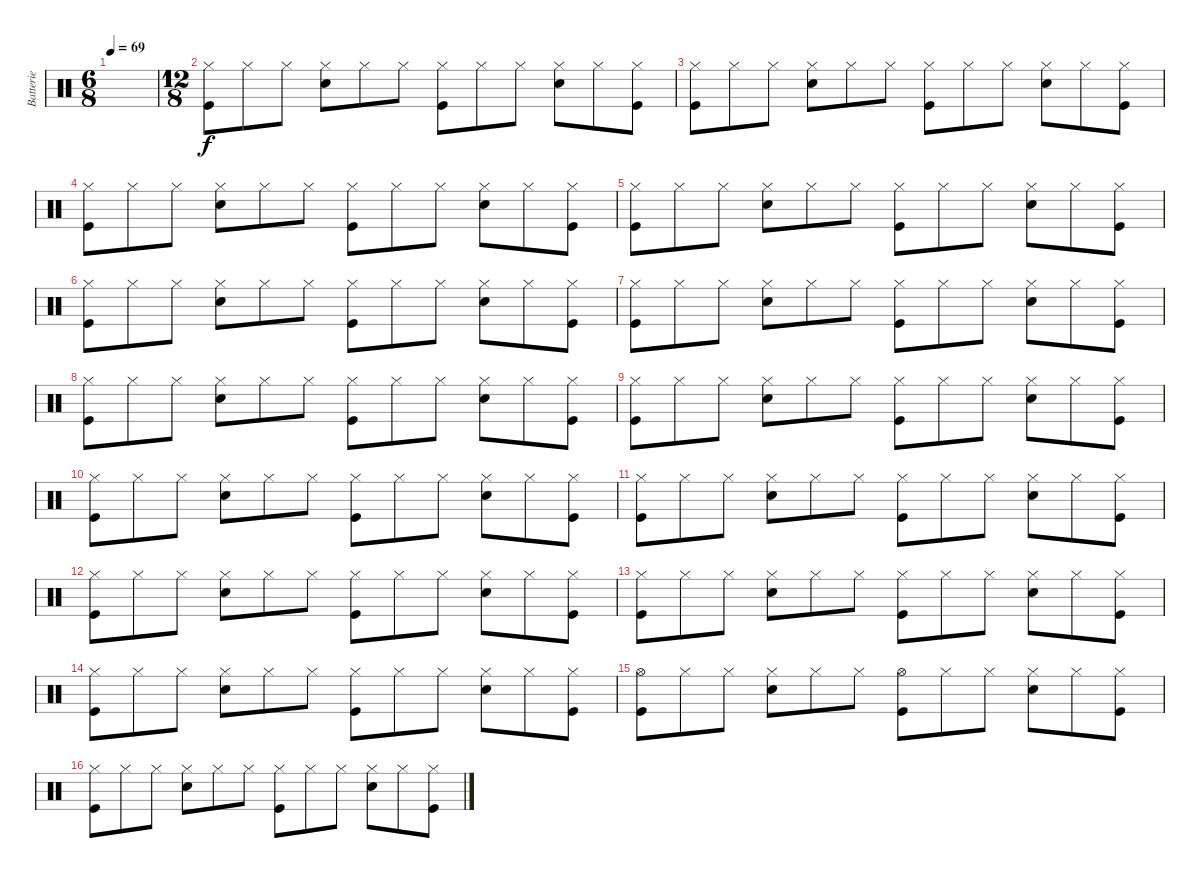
\track ("Batterie" "Batterie") {instrument percussion}
\staff {score}
\articulation defaults
\ts (6 8)
\tempo 69
\clef neutral
\ks c
|
\ts (12 8)
("Hi-Hat (closed)" "Kick (hit)").8 "Hi-Hat (closed)".8 "Hi-Hat (closed)".8 ("Hi-Hat (closed)" "Snare (hit) 2").8 "Hi-Hat (closed)".8 "Hi-Hat (closed)".8 ("Hi-Hat (closed)" "Kick (hit)").8 "Hi-Hat (closed)".8 "Hi-Hat (closed)".8 ("Hi-Hat (closed)" "Snare (hit) 2").8 "Hi-Hat (closed)".8 ("Hi-Hat (closed)" "Kick (hit)").8 |
("Hi-Hat (closed)" "Kick (hit)").8 "Hi-Hat (closed)".8 "Hi-Hat (closed)".8 ("Hi-Hat (closed)" "Snare (hit) 2").8 "Hi-Hat (closed)".8 "Hi-Hat (closed)".8 ("Hi-Hat (closed)" "Kick (hit)").8 "Hi-Hat (closed)".8 "Hi-Hat (closed)".8 ("Hi-Hat (closed)" "Snare (hit) 2").8 "Hi-Hat (closed)".8 ("Hi-Hat (closed)" "Kick (hit)").8 |
("Hi-Hat (closed)" "Kick (hit)").8 "Hi-Hat (closed)".8 "Hi-Hat (closed)".8 ("Hi-Hat (closed)" "Snare (hit) 2").8 "Hi-Hat (closed)".8 "Hi-Hat (closed)".8 ("Hi-Hat (closed)" "Kick (hit)").8 "Hi-Hat (closed)".8 "Hi-Hat (closed)".8 ("Hi-Hat (closed)" "Snare (hit) 2").8 "Hi-Hat (closed)".8 ("Hi-Hat (closed)" "Kick (hit)").8 |
("Hi-Hat (closed)" "Kick (hit)").8 "Hi-Hat (closed)".8 "Hi-Hat (closed)".8 ("Hi-Hat (closed)" "Snare (hit) 2").8 "Hi-Hat (closed)".8 "Hi-Hat (closed)".8 ("Hi-Hat (closed)" "Kick (hit)").8 "Hi-Hat (closed)".8 "Hi-Hat (closed)".8 ("Hi-Hat (closed)" "Snare (hit) 2").8 "Hi-Hat (closed)".8 ("Hi-Hat (closed)" "Kick (hit)").8 |
("Hi-Hat (closed)" "Kick (hit)").8 "Hi-Hat (closed)".8 "Hi-Hat (closed)".8 ("Hi-Hat (closed)" "Snare (hit) 2").8 "Hi-Hat (closed)".8 "Hi-Hat (closed)".8 ("Hi-Hat (closed)" "Kick (hit)").8 "Hi-Hat (closed)".8 "Hi-Hat (closed)".8 ("Hi-Hat (closed)" "Snare (hit) 2").8 "Hi-Hat (closed)".8 ("Hi-Hat (closed)" "Kick (hit)").8 |
("Hi-Hat (closed)" "Kick (hit)").8 "Hi-Hat (closed)".8 "Hi-Hat (closed)".8 ("Hi-Hat (closed)" "Snare (hit) 2").8 "Hi-Hat (closed)".8 "Hi-Hat (closed)".8 ("Hi-Hat (closed)" "Kick (hit)").8 "Hi-Hat (closed)".8 "Hi-Hat (closed)".8 ("Hi-Hat (closed)" "Snare (hit) 2").8 "Hi-Hat (closed)".8 ("Hi-Hat (closed)" "Kick (hit)").8 |
("Hi-Hat (closed)" "Kick (hit)").8 "Hi-Hat (closed)".8 "Hi-Hat (closed)".8 ("Hi-Hat (closed)" "Snare (hit) 2").8 "Hi-Hat (closed)".8 "Hi-Hat (closed)".8 ("Hi-Hat (closed)" "Kick (hit)").8 "Hi-Hat (closed)".8 "Hi-Hat (closed)".8 ("Hi-Hat (closed)" "Snare (hit) 2").8 "Hi-Hat (closed)".8 ("Hi-Hat (closed)" "Kick (hit)").8 |
("Hi-Hat (closed)" "Kick (hit)").8 "Hi-Hat (closed)".8 "Hi-Hat (closed)".8 ("Hi-Hat (closed)" "Snare (hit) 2").8 "Hi-Hat (closed)".8 "Hi-Hat (closed)".8 ("Hi-Hat (closed)" "Kick (hit)").8 "Hi-Hat (closed)".8 "Hi-Hat (closed)".8 ("Hi-Hat (closed)" "Snare (hit) 2").8 "Hi-Hat (closed)".8 ("Hi-Hat (closed)" "Kick (hit)").8 |
("Hi-Hat (closed)" "Kick (hit)").8 "Hi-Hat (closed)".8 "Hi-Hat (closed)".8 ("Hi-Hat (closed)" "Snare (hit) 2").8 "Hi-Hat (closed)".8 "Hi-Hat (closed)".8 ("Hi-Hat (closed)" "Kick (hit)").8 "Hi-Hat (closed)".8 "Hi-Hat (closed)".8 ("Hi-Hat (closed)" "Snare (hit) 2").8 "Hi-Hat (closed)".8 ("Hi-Hat (closed)" "Kick (hit)").8 |
("Hi-Hat (closed)" "Kick (hit)").8 "Hi-Hat (closed)".8 "Hi-Hat (closed)".8 ("Hi-Hat (closed)" "Snare (hit) 2").8 "Hi-Hat (closed)".8 "Hi-Hat (closed)".8 ("Hi-Hat (closed)" "Kick (hit)").8 "Hi-Hat (closed)".8 "Hi-Hat (closed)".8 ("Hi-Hat (closed)" "Snare (hit) 2").8 "Hi-Hat (closed)".8 ("Hi-Hat (closed)" "Kick (hit)").8 |
("Hi-Hat (closed)" "Kick (hit)").8 "Hi-Hat (closed)".8 "Hi-Hat (closed)".8 ("Hi-Hat (closed)" "Snare (hit) 2").8 "Hi-Hat (closed)".8 "Hi-Hat (closed)".8 ("Hi-Hat (closed)" "Kick (hit)").8 "Hi-Hat (closed)".8 "Hi-Hat (closed)".8 ("Hi-Hat (closed)" "Snare (hit) 2").8 "Hi-Hat (closed)".8 ("Hi-Hat (closed)" "Kick (hit)").8 |
("Hi-Hat (closed)" "Kick (hit)").8 "Hi-Hat (closed)".8 "Hi-Hat (closed)".8 ("Hi-Hat (closed)" "Snare (hit) 2").8 "Hi-Hat (closed)".8 "Hi-Hat (closed)".8 ("Hi-Hat (closed)" "Kick (hit)").8 "Hi-Hat (closed)".8 "Hi-Hat (closed)".8 ("Hi-Hat (closed)" "Snare (hit) 2").8 "Hi-Hat (closed)".8 ("Hi-Hat (closed)" "Kick (hit)").8 |
("Hi-Hat (closed)" "Kick (hit)").8 "Hi-Hat (closed)".8 "Hi-Hat (closed)".8 ("Hi-Hat (closed)" "Snare (hit) 2").8 "Hi-Hat (closed)".8 "Hi-Hat (closed)".8 ("Hi-Hat (closed)" "Kick (hit)").8 "Hi-Hat (closed)".8 "Hi-Hat (closed)".8 ("Hi-Hat (closed)" "Snare (hit) 2").8 "Hi-Hat (closed)".8 ("Hi-Hat (closed)" "Kick (hit)").8 |
("Hi-Hat (open)" "Kick (hit)").8 "Hi-Hat (closed)".8 "Hi-Hat (closed)".8 ("Hi-Hat (closed)" "Snare (hit) 2").8 "Hi-Hat (closed)".8 "Hi-Hat (closed)".8 ("Hi-Hat (open)" "Kick (hit)").8 "Hi-Hat (closed)".8 "Hi-Hat (closed)".8 ("Hi-Hat (closed)" "Snare (hit) 2").8 "Hi-Hat (closed)".8 ("Hi-Hat (closed)" "Kick (hit)").8 |
("Hi-Hat (closed)" "Kick (hit)").8 "Hi-Hat (closed)".8 "Hi-Hat (closed)".8 ("Hi-Hat (closed)" "Snare (hit) 2").8 "Hi-Hat (closed)".8 "Hi-Hat (closed)".8 ("Hi-Hat (closed)" "Kick (hit)").8 "Hi-Hat (closed)".8 "Hi-Hat (closed)".8 ("Hi-Hat (closed)" "Snare (hit) 2").8 "Hi-Hat (closed)".8 ("Hi-Hat (closed)" "Kick (hit)").8
